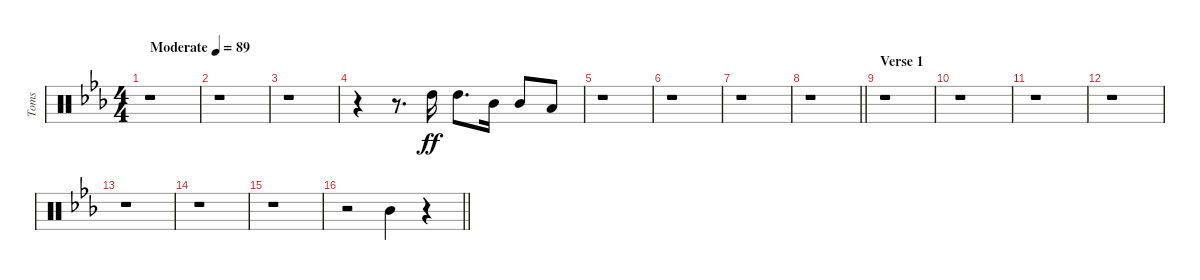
\track ("Toms" "Toms") {instrument percussion}
\staff {score}
\articulation defaults
\ts (4 4)
\tempo (89 "Moderate")
\clef neutral
\ks eb
r.1{dy ff} |
r.1 |
r.1 |
r.4 r.8{d} "High Tom (hit)".16{balance 11} "High Tom (hit)".8{d} "Mid Tom (hit)".16{balance 8} "Mid Tom (hit)".8 "Low Tom (hit)".8{balance 5} |
r.1 |
r.1 |
r.1 |
\barLineRight lightlight
r.1 |
\section ("" "Verse 1")
r.1 |
r.1 |
r.1 |
r.1 |
r.1 |
r.1 |
r.1 |
\barLineRight lightlight
r.2 "Mid Tom (hit)".4{balance 8} r.4
